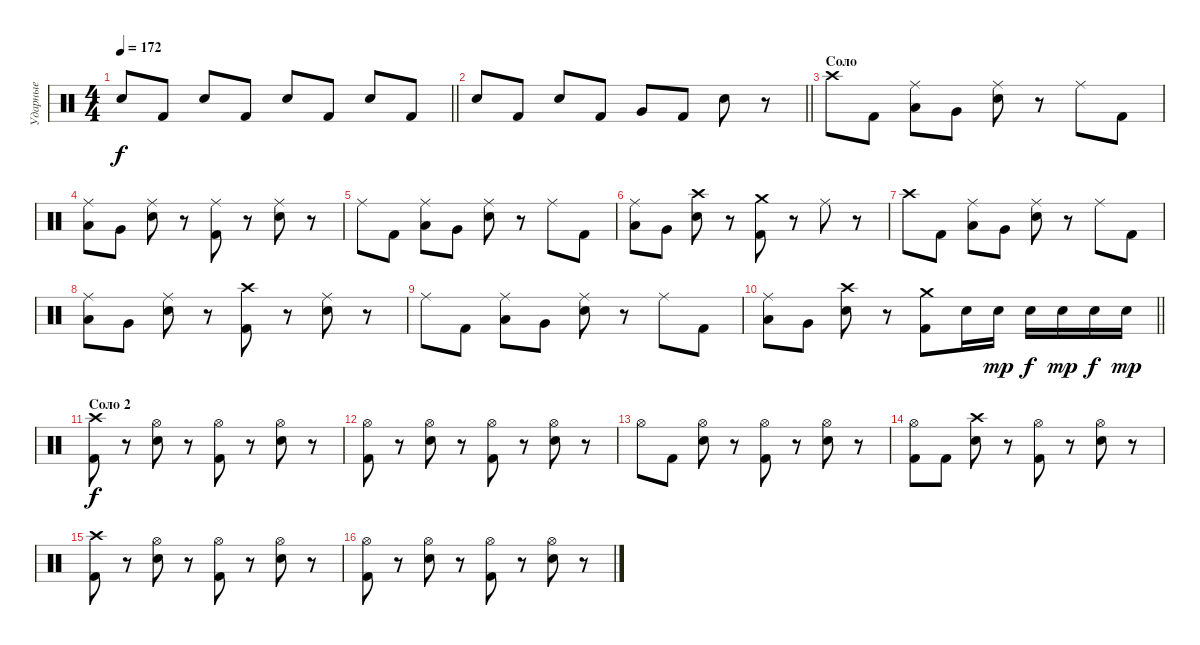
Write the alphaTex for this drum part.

\track ("Ударные" "Ударные") {instrument percussion}
\staff {score}
\articulation defaults
\ts (4 4)
\tempo 172
\clef neutral
\barLineRight lightlight
\ks c "Snare (hit) 2".8{dy f} "Kick (hit) 2".8 "Snare (hit) 2".8 "Kick (hit) 2".8 "Snare (hit) 2".8 "Kick (hit) 2".8 "Snare (hit) 2".8 "Kick (hit) 2".8
|
\barLineRight lightlight "Snare (hit) 2".8 "Kick (hit) 2".8 "Snare (hit) 2".8 "Kick (hit) 2".8 "Very Low Tom (hit)".8 "Kick (hit) 2".8 "Snare (hit) 2".8
r.8 |
\section ("" "Соло")
"Crash high (hit)".8 "Kick (hit) 2".8 ("Ride (middle)" "Low Tom (hit)").8 "Very Low Tom (hit)".8 ("Ride (middle)" "Snare (hit) 2").8 r.8 "Ride (middle)".8 "Kick (hit) 2".8 |
("Ride (middle)" "Low Tom (hit)").8 "Very Low Tom (hit)".8 ("Ride (middle)" "Snare (hit) 2").8 r.8 ("Ride (middle)" "Kick (hit) 2").8 r.8 ("Ride (middle)" "Snare (hit) 2").8 r.8 |
"Ride (middle)".8 "Kick (hit) 2".8 ("Ride (middle)" "Low Tom (hit)").8 "Very Low Tom (hit)".8 ("Ride (middle)" "Snare (hit) 2").8 r.8 "Ride (middle)".8 "Kick (hit) 2".8 |
("Ride (middle)" "Low Tom (hit)").8 "Very Low Tom (hit)".8 ("Crash high (hit)" "Snare (hit) 2").8 r.8 ("Crash medium (hit)" "Kick (hit) 2").8 r.8 "Ride (middle)".8 r.8 |
"Crash high (hit)".8 "Kick (hit) 2".8 ("Ride (middle)" "Low Tom (hit)").8 "Very Low Tom (hit)".8 ("Ride (middle)" "Snare (hit) 2").8 r.8 "Ride (middle)".8 "Kick (hit) 2".8 |
("Ride (middle)" "Low Tom (hit)").8 "Very Low Tom (hit)".8 ("Ride (middle)" "Snare (hit) 2").8 r.8 ("Crash high (hit)" "Kick (hit) 2").8 r.8 ("Ride (middle)" "Snare (hit) 2").8 r.8 |
"Ride (middle)".8 "Kick (hit) 2".8 ("Ride (middle)" "Low Tom (hit)").8 "Very Low Tom (hit)".8 ("Ride (middle)" "Snare (hit) 2").8 r.8 "Ride (middle)".8 "Kick (hit) 2".8 |
\barLineRight lightlight
("Ride (middle)" "Low Tom (hit)").8 "Very Low Tom (hit)".8 ("Crash high (hit)" "Snare (hit) 2").8 r.8 ("Crash medium (hit)" "Kick (hit) 2").8 "Snare (hit) 2".16 "Snare (hit) 2".16{dy mp} "Snare (hit) 2".16{dy f} "Snare (hit) 2".16{dy mp} "Snare (hit) 2".16{dy f} "Snare (hit) 2".16{dy mp} |
\section ("" "Соло 2")
("Crash high (hit)" "Kick (hit) 2").8{dy f} r.8 ("Hi-Hat (open)" "Snare (hit) 2").8 r.8 ("Hi-Hat (open)" "Kick (hit) 2").8 r.8 ("Hi-Hat (open)" "Snare (hit) 2").8 r.8 |
("Hi-Hat (open)" "Kick (hit) 2").8 r.8 ("Hi-Hat (open)" "Snare (hit) 2").8 r.8 ("Hi-Hat (open)" "Kick (hit) 2").8 r.8 ("Hi-Hat (open)" "Snare (hit) 2").8 r.8 |
"Hi-Hat (open)".8 "Kick (hit) 2".8 ("Hi-Hat (open)" "Snare (hit) 2").8 r.8 ("Hi-Hat (open)" "Kick (hit) 2").8 r.8 ("Hi-Hat (open)" "Snare (hit) 2").8 r.8 |
("Hi-Hat (open)" "Kick (hit) 2").8 "Kick (hit) 2".8 ("Crash high (hit)" "Snare (hit) 2").8 r.8 ("Hi-Hat (open)" "Kick (hit) 2").8 r.8 ("Hi-Hat (open)" "Snare (hit) 2").8 r.8 |
("Crash high (hit)" "Kick (hit) 2").8 r.8 ("Hi-Hat (open)" "Snare (hit) 2").8 r.8 ("Hi-Hat (open)" "Kick (hit) 2").8 r.8 ("Hi-Hat (open)" "Snare (hit) 2").8 r.8 |
("Hi-Hat (open)" "Kick (hit) 2").8 r.8 ("Hi-Hat (open)" "Snare (hit) 2").8 r.8 ("Hi-Hat (open)" "Kick (hit) 2").8 r.8 ("Hi-Hat (open)" "Snare (hit) 2").8 r.8
